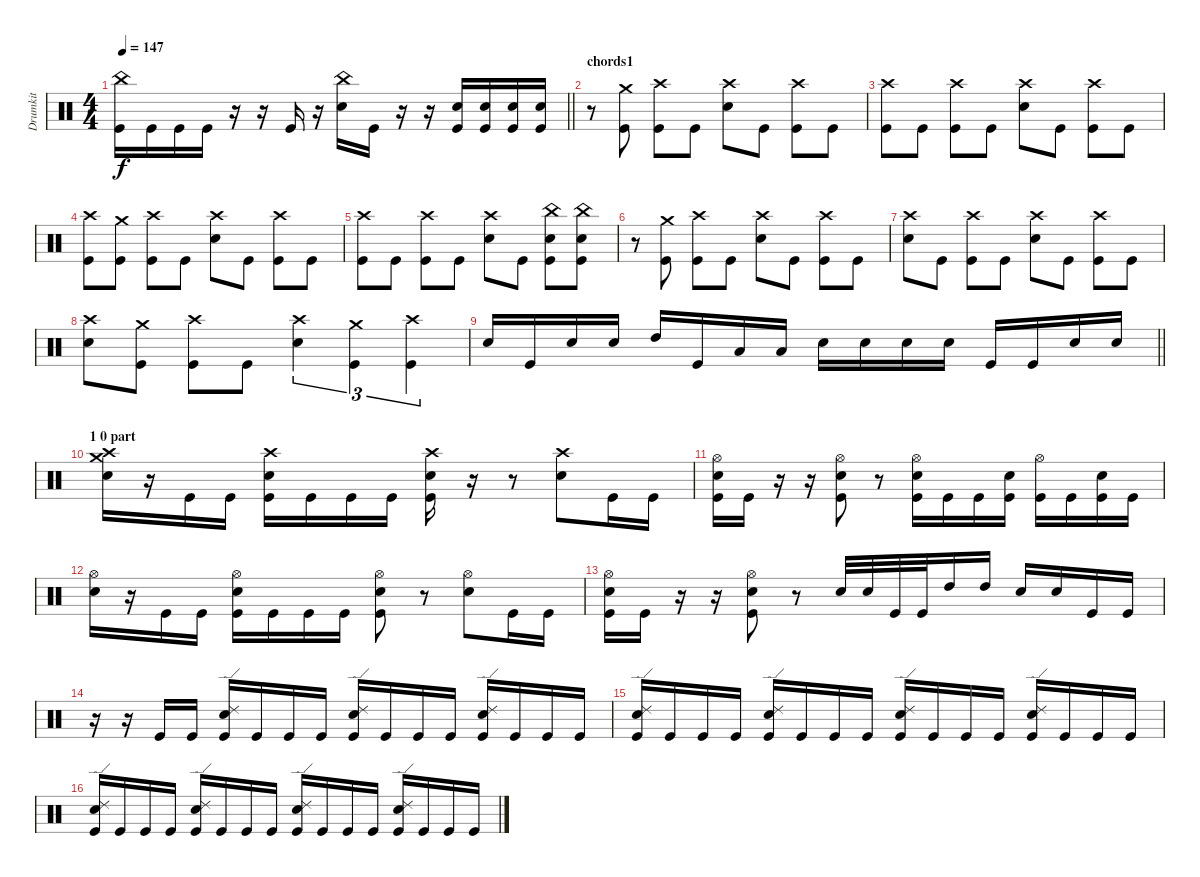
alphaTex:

\track ("Drumkit" "Drumkit") {instrument percussion}
\staff {score}
\articulation defaults
\ts (4 4)
\tempo 147
\clef neutral
\barLineRight lightlight
\ks c
("China (hit)" "Kick (hit)").16{dy f} "Kick (hit)".16 "Kick (hit)".16 "Kick (hit)".16 r.16 r.16 "Kick (hit)".16 r.16 ("China (hit)" "Snare (hit) 2").16 "Kick (hit)".16 r.16 r.16 ("Snare (hit) 2" "Kick (hit)").16 ("Snare (hit) 2" "Kick (hit)").16 ("Snare (hit) 2" "Kick (hit)").16 ("Snare (hit) 2" "Kick (hit)").16 |
\section ("" "chords1")
r.8 ("Crash medium (hit)" "Kick (hit)").8 ("Crash high (hit)" "Kick (hit)").8 "Kick (hit)".8 ("Crash high (hit)" "Snare (hit) 2").8 "Kick (hit)".8 ("Crash high (hit)" "Kick (hit)").8 "Kick (hit)".8 |
("Crash high (hit)" "Kick (hit)").8 "Kick (hit)".8 ("Crash high (hit)" "Kick (hit)").8 "Kick (hit)".8 ("Crash high (hit)" "Snare (hit) 2").8 "Kick (hit)".8 ("Crash high (hit)" "Kick (hit)").8 "Kick (hit)".8 |
("Crash high (hit)" "Kick (hit)").8 ("Crash medium (hit)" "Kick (hit)").8 ("Crash high (hit)" "Kick (hit)").8 "Kick (hit)".8 ("Crash high (hit)" "Snare (hit) 2").8 "Kick (hit)".8 ("Crash high (hit)" "Kick (hit)").8 "Kick (hit)".8 |
("Crash high (hit)" "Kick (hit)").8 "Kick (hit)".8 ("Crash high (hit)" "Kick (hit)").8 "Kick (hit)".8 ("Crash high (hit)" "Snare (hit) 2").8 "Kick (hit)".8 ("China (hit)" "Snare (hit) 2" "Kick (hit)").8 ("China (hit)" "Snare (hit) 2" "Kick (hit)").8 |
r.8 ("Crash medium (hit)" "Kick (hit)").8 ("Crash high (hit)" "Kick (hit)").8 "Kick (hit)".8 ("Crash high (hit)" "Snare (hit) 2").8 "Kick (hit)".8 ("Crash high (hit)" "Kick (hit)").8 "Kick (hit)".8 |
("Crash high (hit)" "Snare (hit) 2").8 "Kick (hit)".8 ("Crash high (hit)" "Kick (hit)").8 "Kick (hit)".8 ("Crash high (hit)" "Snare (hit) 2").8 "Kick (hit)".8 ("Crash high (hit)" "Kick (hit)").8 "Kick (hit)".8 |
("Crash high (hit)" "Snare (hit) 2").8 ("Crash medium (hit)" "Kick (hit)").8 ("Crash high (hit)" "Kick (hit)").8 "Kick (hit)".8 ("Crash high (hit)" "Snare (hit) 2").4{tu (3 2)} ("Crash medium (hit)" "Kick (hit)").4{tu (3 2)} ("Crash high (hit)" "Kick (hit)").4{tu (3 2)} |
\barLineRight lightlight "Snare (hit) 2".16 "Kick (hit)".16 "Snare (hit) 2".16 "Snare (hit) 2".16 "High Tom (hit)".16 "Kick (hit)".16 "Low Tom (hit)".16 "Low Tom (hit)".16 "Snare (hit) 2".16 "Snare (hit) 2".16 "Snare (hit) 2".16 "Snare (hit) 2".16 "Kick (hit)".16 "Kick (hit)".16 "Snare (hit) 2".16 "Snare (hit) 2".16
|
\section ("" "1 0 part")
("Crash medium (hit)" "Crash high (hit)" "Snare (hit) 2").16 r.16 "Kick (hit)".16 "Kick (hit)".16 ("Crash high (hit)" "Snare (hit) 2" "Kick (hit)").16 "Kick (hit)".16 "Kick (hit)".16 "Kick (hit)".16 ("Crash high (hit)" "Snare (hit) 2" "Kick (hit)").16 r.16 r.8 ("Crash high (hit)" "Snare (hit) 2").8 "Kick (hit)".16 "Kick (hit)".16 |
("Hi-Hat (open)" "Snare (hit) 2" "Kick (hit)").16 "Kick (hit)".16 r.16 r.16 ("Hi-Hat (open)" "Snare (hit) 2" "Kick (hit)").8 r.8 ("Hi-Hat (open)" "Snare (hit) 2" "Kick (hit)").16 "Kick (hit)".16 "Kick (hit)".16 ("Snare (hit) 2" "Kick (hit)").16 ("Hi-Hat (open)" "Kick (hit)").16 "Kick (hit)".16 ("Snare (hit) 2" "Kick (hit)").16 "Kick (hit)".16 |
("Hi-Hat (open)" "Snare (hit) 2").16 r.16 "Kick (hit)".16 "Kick (hit)".16 ("Hi-Hat (open)" "Snare (hit) 2" "Kick (hit)").16 "Kick (hit)".16 "Kick (hit)".16 "Kick (hit)".16 ("Hi-Hat (open)" "Snare (hit) 2" "Kick (hit)").8 r.8 ("Hi-Hat (open)" "Snare (hit) 2").8 "Kick (hit)".16 "Kick (hit)".16 |
("Hi-Hat (open)" "Snare (hit) 2" "Kick (hit)").16 "Kick (hit)".16 r.16 r.16 ("Hi-Hat (open)" "Snare (hit) 2" "Kick (hit)").8 r.8 "Snare (hit) 2".32 "Snare (hit) 2".32 "Kick (hit)".32 "Kick (hit)".32 "High Tom (hit)".16 "High Tom (hit)".16 "Snare (hit) 2".16 "Snare (hit) 2".16 "Kick (hit)".16 "Kick (hit)".16 |
r.16 r.16 "Kick (hit)".16 "Kick (hit)".16 ("Ride (edge) 2" "Snare (hit) 2" "Kick (hit)").16 "Kick (hit)".16 "Kick (hit)".16 "Kick (hit)".16 ("Ride (edge) 2" "Snare (hit) 2" "Kick (hit)").16 "Kick (hit)".16 "Kick (hit)".16 "Kick (hit)".16 ("Ride (edge) 2" "Snare (hit) 2" "Kick (hit)").16 "Kick (hit)".16 "Kick (hit)".16 "Kick (hit)".16 |
("Ride (edge) 2" "Snare (hit) 2" "Kick (hit)").16 "Kick (hit)".16 "Kick (hit)".16 "Kick (hit)".16 ("Ride (edge) 2" "Snare (hit) 2" "Kick (hit)").16 "Kick (hit)".16 "Kick (hit)".16 "Kick (hit)".16 ("Ride (edge) 2" "Snare (hit) 2" "Kick (hit)").16 "Kick (hit)".16 "Kick (hit)".16 "Kick (hit)".16 ("Ride (edge) 2" "Snare (hit) 2" "Kick (hit)").16 "Kick (hit)".16 "Kick (hit)".16 "Kick (hit)".16 |
("Ride (edge) 2" "Snare (hit) 2" "Kick (hit)").16 "Kick (hit)".16 "Kick (hit)".16 "Kick (hit)".16 ("Ride (edge) 2" "Snare (hit) 2" "Kick (hit)").16 "Kick (hit)".16 "Kick (hit)".16 "Kick (hit)".16 ("Ride (edge) 2" "Snare (hit) 2" "Kick (hit)").16 "Kick (hit)".16 "Kick (hit)".16 "Kick (hit)".16 ("Ride (edge) 2" "Snare (hit) 2" "Kick (hit)").16 "Kick (hit)".16 "Kick (hit)".16 "Kick (hit)".16
